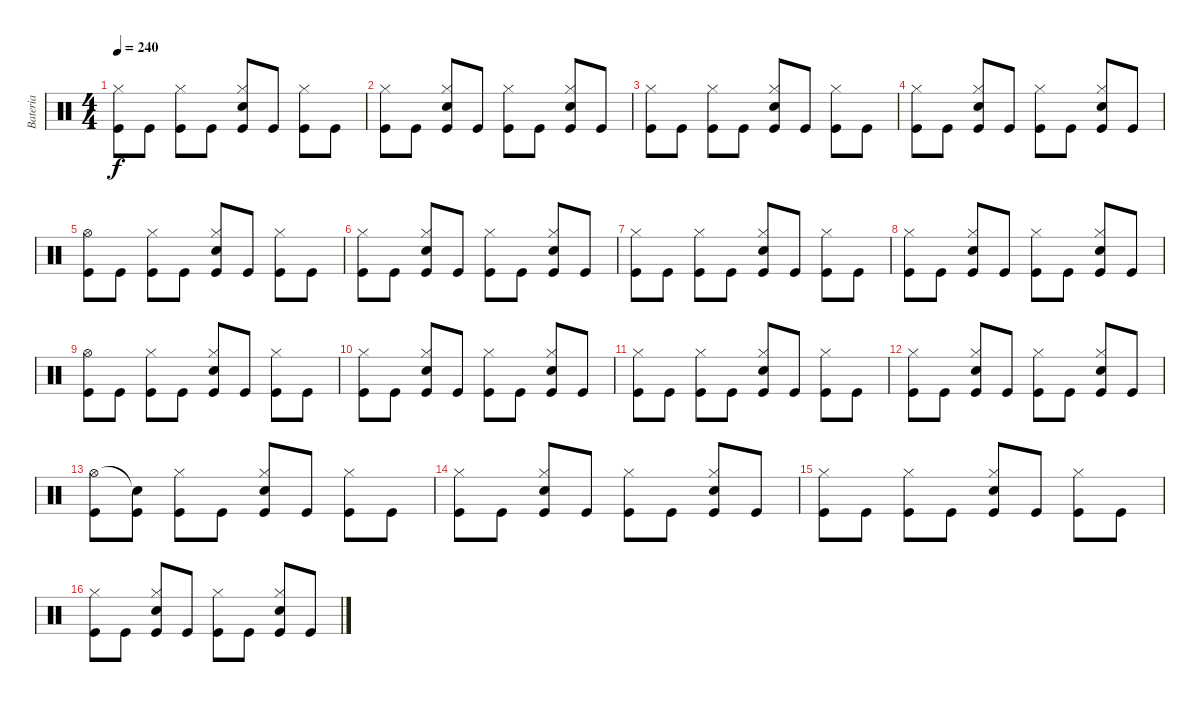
\track ("Bateria" "Bateria") {instrument percussion}
\staff {score}
\articulation defaults
\ts (4 4)
\tempo 240
\clef neutral
\ks c
("Kick (hit)" "Hi-Hat (closed)").8{dy f} "Kick (hit)".8 ("Kick (hit)" "Hi-Hat (closed)").8 "Kick (hit)".8 ("Kick (hit)" "Electric Snare (hit)" "Hi-Hat (closed)").8 "Kick (hit)".8 ("Kick (hit)" "Hi-Hat (closed)").8 "Kick (hit)".8 |
("Kick (hit)" "Hi-Hat (closed)").8 "Kick (hit)".8 ("Kick (hit)" "Electric Snare (hit)" "Hi-Hat (closed)").8 "Kick (hit)".8 ("Kick (hit)" "Hi-Hat (closed)").8 "Kick (hit)".8 ("Kick (hit)" "Electric Snare (hit)" "Hi-Hat (closed)").8 "Kick (hit)".8 |
("Kick (hit)" "Hi-Hat (closed)").8 "Kick (hit)".8 ("Kick (hit)" "Hi-Hat (closed)").8 "Kick (hit)".8 ("Kick (hit)" "Electric Snare (hit)" "Hi-Hat (closed)").8 "Kick (hit)".8 ("Kick (hit)" "Hi-Hat (closed)").8 "Kick (hit)".8 |
("Kick (hit)" "Hi-Hat (closed)").8 "Kick (hit)".8 ("Kick (hit)" "Electric Snare (hit)" "Hi-Hat (closed)").8 "Kick (hit)".8 ("Kick (hit)" "Hi-Hat (closed)").8 "Kick (hit)".8 ("Kick (hit)" "Electric Snare (hit)" "Hi-Hat (closed)").8 "Kick (hit)".8 |
("Kick (hit)" "Hi-Hat (open)").8 "Kick (hit)".8 ("Kick (hit)" "Hi-Hat (closed)").8 "Kick (hit)".8 ("Kick (hit)" "Electric Snare (hit)" "Hi-Hat (closed)").8 "Kick (hit)".8 ("Kick (hit)" "Hi-Hat (closed)").8 "Kick (hit)".8 |
("Kick (hit)" "Hi-Hat (closed)").8 "Kick (hit)".8 ("Kick (hit)" "Electric Snare (hit)" "Hi-Hat (closed)").8 "Kick (hit)".8 ("Kick (hit)" "Hi-Hat (closed)").8 "Kick (hit)".8 ("Kick (hit)" "Electric Snare (hit)" "Hi-Hat (closed)").8 "Kick (hit)".8 |
("Kick (hit)" "Hi-Hat (closed)").8 "Kick (hit)".8 ("Kick (hit)" "Hi-Hat (closed)").8 "Kick (hit)".8 ("Kick (hit)" "Electric Snare (hit)" "Hi-Hat (closed)").8 "Kick (hit)".8 ("Kick (hit)" "Hi-Hat (closed)").8 "Kick (hit)".8 |
("Kick (hit)" "Hi-Hat (closed)").8 "Kick (hit)".8 ("Kick (hit)" "Electric Snare (hit)" "Hi-Hat (closed)").8 "Kick (hit)".8 ("Kick (hit)" "Hi-Hat (closed)").8 "Kick (hit)".8 ("Kick (hit)" "Electric Snare (hit)" "Hi-Hat (closed)").8 "Kick (hit)".8 |
("Kick (hit)" "Hi-Hat (open)").8 "Kick (hit)".8 ("Kick (hit)" "Hi-Hat (closed)").8 "Kick (hit)".8 ("Kick (hit)" "Electric Snare (hit)" "Hi-Hat (closed)").8 "Kick (hit)".8 ("Kick (hit)" "Hi-Hat (closed)").8 "Kick (hit)".8 |
("Kick (hit)" "Hi-Hat (closed)").8 "Kick (hit)".8 ("Kick (hit)" "Electric Snare (hit)" "Hi-Hat (closed)").8 "Kick (hit)".8 ("Kick (hit)" "Hi-Hat (closed)").8 "Kick (hit)".8 ("Kick (hit)" "Electric Snare (hit)" "Hi-Hat (closed)").8 "Kick (hit)".8 |
("Kick (hit)" "Hi-Hat (closed)").8 "Kick (hit)".8 ("Kick (hit)" "Hi-Hat (closed)").8 "Kick (hit)".8 ("Kick (hit)" "Electric Snare (hit)" "Hi-Hat (closed)").8 "Kick (hit)".8 ("Kick (hit)" "Hi-Hat (closed)").8 "Kick (hit)".8 |
("Kick (hit)" "Hi-Hat (closed)").8 "Kick (hit)".8 ("Kick (hit)" "Electric Snare (hit)" "Hi-Hat (closed)").8 "Kick (hit)".8 ("Kick (hit)" "Hi-Hat (closed)").8 "Kick (hit)".8 ("Kick (hit)" "Electric Snare (hit)" "Hi-Hat (closed)").8 "Kick (hit)".8 |
("Kick (hit)" "Hi-Hat (open)").8 ("Kick (hit)" "Snare (hit)"{t}).8 ("Kick (hit)" "Hi-Hat (closed)").8 "Kick (hit)".8 ("Kick (hit)" "Electric Snare (hit)" "Hi-Hat (closed)").8 "Kick (hit)".8 ("Kick (hit)" "Hi-Hat (closed)").8 "Kick (hit)".8 |
("Kick (hit)" "Hi-Hat (closed)").8 "Kick (hit)".8 ("Kick (hit)" "Electric Snare (hit)" "Hi-Hat (closed)").8 "Kick (hit)".8 ("Kick (hit)" "Hi-Hat (closed)").8 "Kick (hit)".8 ("Kick (hit)" "Electric Snare (hit)" "Hi-Hat (closed)").8 "Kick (hit)".8 |
("Kick (hit)" "Hi-Hat (closed)").8 "Kick (hit)".8 ("Kick (hit)" "Hi-Hat (closed)").8 "Kick (hit)".8 ("Kick (hit)" "Electric Snare (hit)" "Hi-Hat (closed)").8 "Kick (hit)".8 ("Kick (hit)" "Hi-Hat (closed)").8 "Kick (hit)".8 |
("Kick (hit)" "Hi-Hat (closed)").8 "Kick (hit)".8 ("Kick (hit)" "Electric Snare (hit)" "Hi-Hat (closed)").8 "Kick (hit)".8 ("Kick (hit)" "Hi-Hat (closed)").8 "Kick (hit)".8 ("Kick (hit)" "Electric Snare (hit)" "Hi-Hat (closed)").8 "Kick (hit)".8
